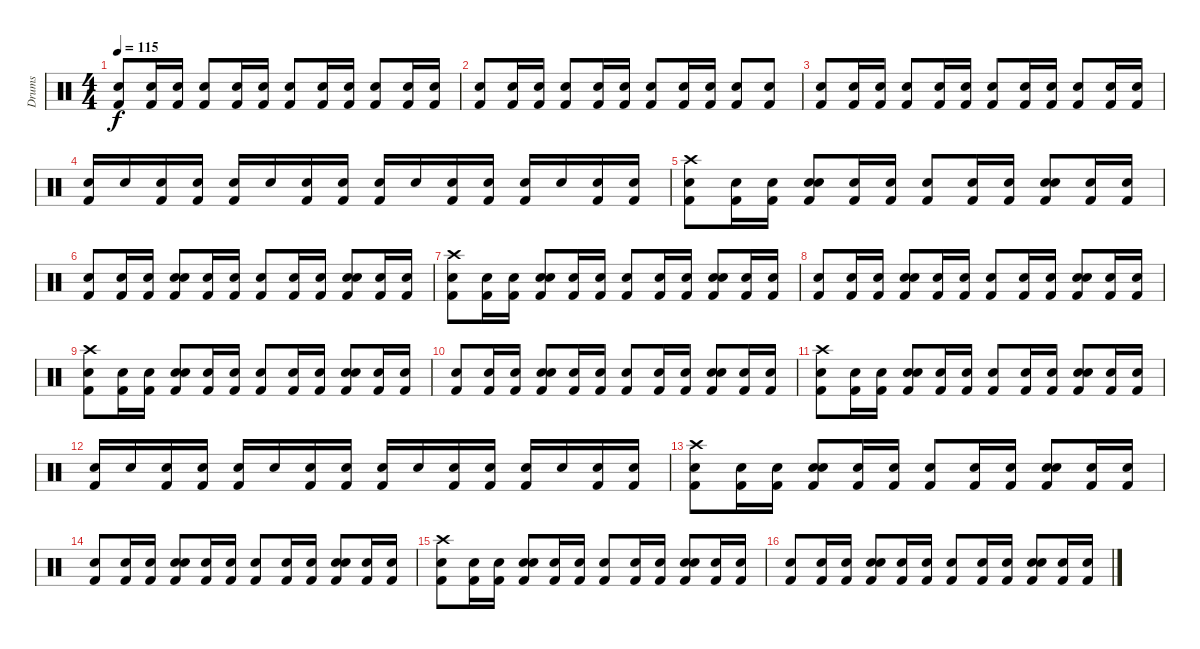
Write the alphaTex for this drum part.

\track ("Drums" "Drums") {instrument percussion}
\staff {score}
\articulation defaults
\ts (4 4)
\tempo 115
\clef neutral
\ks c
("Kick (hit) 2" "Snare (hit) 2").8{dy f} ("Kick (hit) 2" "Snare (hit) 2").16 ("Kick (hit) 2" "Snare (hit) 2").16 ("Kick (hit) 2" "Snare (hit) 2").8 ("Kick (hit) 2" "Snare (hit) 2").16 ("Kick (hit) 2" "Snare (hit) 2").16 ("Kick (hit) 2" "Snare (hit) 2").8 ("Kick (hit) 2" "Snare (hit) 2").16 ("Kick (hit) 2" "Snare (hit) 2").16 ("Kick (hit) 2" "Snare (hit) 2").8 ("Kick (hit) 2" "Snare (hit) 2").16 ("Kick (hit) 2" "Snare (hit) 2").16 |
("Kick (hit) 2" "Snare (hit) 2").8 ("Kick (hit) 2" "Snare (hit) 2").16 ("Kick (hit) 2" "Snare (hit) 2").16 ("Kick (hit) 2" "Snare (hit) 2").8 ("Kick (hit) 2" "Snare (hit) 2").16 ("Kick (hit) 2" "Snare (hit) 2").16 ("Kick (hit) 2" "Snare (hit) 2").8 ("Kick (hit) 2" "Snare (hit) 2").16 ("Kick (hit) 2" "Snare (hit) 2").16 ("Kick (hit) 2" "Snare (hit) 2").8 ("Kick (hit) 2" "Snare (hit) 2").8 |
("Kick (hit) 2" "Snare (hit) 2").8 ("Kick (hit) 2" "Snare (hit) 2").16 ("Kick (hit) 2" "Snare (hit) 2").16 ("Kick (hit) 2" "Snare (hit) 2").8 ("Kick (hit) 2" "Snare (hit) 2").16 ("Kick (hit) 2" "Snare (hit) 2").16 ("Kick (hit) 2" "Snare (hit) 2").8 ("Kick (hit) 2" "Snare (hit) 2").16 ("Kick (hit) 2" "Snare (hit) 2").16 ("Kick (hit) 2" "Snare (hit) 2").8 ("Kick (hit) 2" "Snare (hit) 2").16 ("Kick (hit) 2" "Snare (hit) 2").16 |
("Kick (hit) 2" "Snare (hit) 2").16 "Snare (hit) 2".16 ("Kick (hit) 2" "Snare (hit) 2").16 ("Kick (hit) 2" "Snare (hit) 2").16 ("Kick (hit) 2" "Snare (hit) 2").16 "Snare (hit) 2".16 ("Kick (hit) 2" "Snare (hit) 2").16 ("Kick (hit) 2" "Snare (hit) 2").16 ("Kick (hit) 2" "Electric Snare (hit)").16 "Electric Snare (hit)".16 ("Kick (hit) 2" "Electric Snare (hit)").16 ("Kick (hit) 2" "Electric Snare (hit)").16 ("Kick (hit) 2" "Electric Snare (hit)").16 "Electric Snare (hit)".16 ("Kick (hit) 2" "Electric Snare (hit)").16 ("Kick (hit) 2" "Electric Snare (hit)").16 |
("Crash high (hit)" "Kick (hit) 2" "Snare (hit) 2").8 ("Kick (hit) 2" "Snare (hit) 2").16 ("Kick (hit) 2" "Snare (hit) 2").16 ("Electric Snare (hit)" "Kick (hit) 2" "Snare (hit) 2").8 ("Kick (hit) 2" "Snare (hit) 2").16 ("Kick (hit) 2" "Snare (hit) 2").16 ("Kick (hit) 2" "Snare (hit) 2").8 ("Kick (hit) 2" "Snare (hit) 2").16 ("Kick (hit) 2" "Snare (hit) 2").16 ("Electric Snare (hit)" "Kick (hit) 2" "Snare (hit) 2").8 ("Kick (hit) 2" "Snare (hit) 2").16 ("Kick (hit) 2" "Snare (hit) 2").16 |
("Kick (hit) 2" "Snare (hit) 2").8 ("Kick (hit) 2" "Snare (hit) 2").16 ("Kick (hit) 2" "Snare (hit) 2").16 ("Electric Snare (hit)" "Kick (hit) 2" "Snare (hit) 2").8 ("Kick (hit) 2" "Snare (hit) 2").16 ("Kick (hit) 2" "Snare (hit) 2").16 ("Kick (hit) 2" "Snare (hit) 2").8 ("Kick (hit) 2" "Snare (hit) 2").16 ("Kick (hit) 2" "Snare (hit) 2").16 ("Electric Snare (hit)" "Kick (hit) 2" "Snare (hit) 2").8 ("Kick (hit) 2" "Snare (hit) 2").16 ("Kick (hit) 2" "Snare (hit) 2").16 |
("Crash high (hit)" "Kick (hit) 2" "Snare (hit) 2").8 ("Kick (hit) 2" "Snare (hit) 2").16 ("Kick (hit) 2" "Snare (hit) 2").16 ("Electric Snare (hit)" "Kick (hit) 2" "Snare (hit) 2").8 ("Kick (hit) 2" "Snare (hit) 2").16 ("Kick (hit) 2" "Snare (hit) 2").16 ("Kick (hit) 2" "Snare (hit) 2").8 ("Kick (hit) 2" "Snare (hit) 2").16 ("Kick (hit) 2" "Snare (hit) 2").16 ("Electric Snare (hit)" "Kick (hit) 2" "Snare (hit) 2").8 ("Kick (hit) 2" "Snare (hit) 2").16 ("Kick (hit) 2" "Snare (hit) 2").16 |
("Kick (hit) 2" "Snare (hit) 2").8 ("Kick (hit) 2" "Snare (hit) 2").16 ("Kick (hit) 2" "Snare (hit) 2").16 ("Electric Snare (hit)" "Kick (hit) 2" "Snare (hit) 2").8 ("Kick (hit) 2" "Snare (hit) 2").16 ("Kick (hit) 2" "Snare (hit) 2").16 ("Kick (hit) 2" "Snare (hit) 2").8 ("Kick (hit) 2" "Snare (hit) 2").16 ("Kick (hit) 2" "Snare (hit) 2").16 ("Electric Snare (hit)" "Kick (hit) 2" "Snare (hit) 2").8 ("Kick (hit) 2" "Snare (hit) 2").16 ("Kick (hit) 2" "Snare (hit) 2").16 |
("Crash high (hit)" "Kick (hit) 2" "Snare (hit) 2").8 ("Kick (hit) 2" "Snare (hit) 2").16 ("Kick (hit) 2" "Snare (hit) 2").16 ("Electric Snare (hit)" "Kick (hit) 2" "Snare (hit) 2").8 ("Kick (hit) 2" "Snare (hit) 2").16 ("Kick (hit) 2" "Snare (hit) 2").16 ("Kick (hit) 2" "Snare (hit) 2").8 ("Kick (hit) 2" "Snare (hit) 2").16 ("Kick (hit) 2" "Snare (hit) 2").16 ("Electric Snare (hit)" "Kick (hit) 2" "Snare (hit) 2").8 ("Kick (hit) 2" "Snare (hit) 2").16 ("Kick (hit) 2" "Snare (hit) 2").16 |
("Kick (hit) 2" "Snare (hit) 2").8 ("Kick (hit) 2" "Snare (hit) 2").16 ("Kick (hit) 2" "Snare (hit) 2").16 ("Electric Snare (hit)" "Kick (hit) 2" "Snare (hit) 2").8 ("Kick (hit) 2" "Snare (hit) 2").16 ("Kick (hit) 2" "Snare (hit) 2").16 ("Kick (hit) 2" "Snare (hit) 2").8 ("Kick (hit) 2" "Snare (hit) 2").16 ("Kick (hit) 2" "Snare (hit) 2").16 ("Electric Snare (hit)" "Kick (hit) 2" "Snare (hit) 2").8 ("Kick (hit) 2" "Snare (hit) 2").16 ("Kick (hit) 2" "Snare (hit) 2").16 |
("Crash high (hit)" "Kick (hit) 2" "Snare (hit) 2").8 ("Kick (hit) 2" "Snare (hit) 2").16 ("Kick (hit) 2" "Snare (hit) 2").16 ("Electric Snare (hit)" "Kick (hit) 2" "Snare (hit) 2").8 ("Kick (hit) 2" "Snare (hit) 2").16 ("Kick (hit) 2" "Snare (hit) 2").16 ("Kick (hit) 2" "Snare (hit) 2").8 ("Kick (hit) 2" "Snare (hit) 2").16 ("Kick (hit) 2" "Snare (hit) 2").16 ("Electric Snare (hit)" "Kick (hit) 2" "Snare (hit) 2").8 ("Kick (hit) 2" "Snare (hit) 2").16 ("Kick (hit) 2" "Snare (hit) 2").16 |
("Kick (hit) 2" "Snare (hit) 2").16 "Snare (hit) 2".16 ("Kick (hit) 2" "Snare (hit) 2").16 ("Kick (hit) 2" "Snare (hit) 2").16 ("Kick (hit) 2" "Snare (hit) 2").16 "Snare (hit) 2".16 ("Kick (hit) 2" "Snare (hit) 2").16 ("Kick (hit) 2" "Snare (hit) 2").16 ("Kick (hit) 2" "Electric Snare (hit)").16 "Electric Snare (hit)".16 ("Kick (hit) 2" "Electric Snare (hit)").16 ("Kick (hit) 2" "Electric Snare (hit)").16 ("Kick (hit) 2" "Electric Snare (hit)").16 "Electric Snare (hit)".16 ("Kick (hit) 2" "Electric Snare (hit)").16 ("Kick (hit) 2" "Electric Snare (hit)").16 |
("Crash high (hit)" "Kick (hit) 2" "Snare (hit) 2").8 ("Kick (hit) 2" "Snare (hit) 2").16 ("Kick (hit) 2" "Snare (hit) 2").16 ("Electric Snare (hit)" "Kick (hit) 2" "Snare (hit) 2").8 ("Kick (hit) 2" "Snare (hit) 2").16 ("Kick (hit) 2" "Snare (hit) 2").16 ("Kick (hit) 2" "Snare (hit) 2").8 ("Kick (hit) 2" "Snare (hit) 2").16 ("Kick (hit) 2" "Snare (hit) 2").16 ("Electric Snare (hit)" "Kick (hit) 2" "Snare (hit) 2").8 ("Kick (hit) 2" "Snare (hit) 2").16 ("Kick (hit) 2" "Snare (hit) 2").16 |
("Kick (hit) 2" "Snare (hit) 2").8 ("Kick (hit) 2" "Snare (hit) 2").16 ("Kick (hit) 2" "Snare (hit) 2").16 ("Electric Snare (hit)" "Kick (hit) 2" "Snare (hit) 2").8 ("Kick (hit) 2" "Snare (hit) 2").16 ("Kick (hit) 2" "Snare (hit) 2").16 ("Kick (hit) 2" "Snare (hit) 2").8 ("Kick (hit) 2" "Snare (hit) 2").16 ("Kick (hit) 2" "Snare (hit) 2").16 ("Electric Snare (hit)" "Kick (hit) 2" "Snare (hit) 2").8 ("Kick (hit) 2" "Snare (hit) 2").16 ("Kick (hit) 2" "Snare (hit) 2").16 |
("Crash high (hit)" "Kick (hit) 2" "Snare (hit) 2").8 ("Kick (hit) 2" "Snare (hit) 2").16 ("Kick (hit) 2" "Snare (hit) 2").16 ("Electric Snare (hit)" "Kick (hit) 2" "Snare (hit) 2").8 ("Kick (hit) 2" "Snare (hit) 2").16 ("Kick (hit) 2" "Snare (hit) 2").16 ("Kick (hit) 2" "Snare (hit) 2").8 ("Kick (hit) 2" "Snare (hit) 2").16 ("Kick (hit) 2" "Snare (hit) 2").16 ("Electric Snare (hit)" "Kick (hit) 2" "Snare (hit) 2").8 ("Kick (hit) 2" "Snare (hit) 2").16 ("Kick (hit) 2" "Snare (hit) 2").16 |
("Kick (hit) 2" "Snare (hit) 2").8 ("Kick (hit) 2" "Snare (hit) 2").16 ("Kick (hit) 2" "Snare (hit) 2").16 ("Electric Snare (hit)" "Kick (hit) 2" "Snare (hit) 2").8 ("Kick (hit) 2" "Snare (hit) 2").16 ("Kick (hit) 2" "Snare (hit) 2").16 ("Kick (hit) 2" "Snare (hit) 2").8 ("Kick (hit) 2" "Snare (hit) 2").16 ("Kick (hit) 2" "Snare (hit) 2").16 ("Electric Snare (hit)" "Kick (hit) 2" "Snare (hit) 2").8 ("Kick (hit) 2" "Snare (hit) 2").16 ("Kick (hit) 2" "Snare (hit) 2").16
